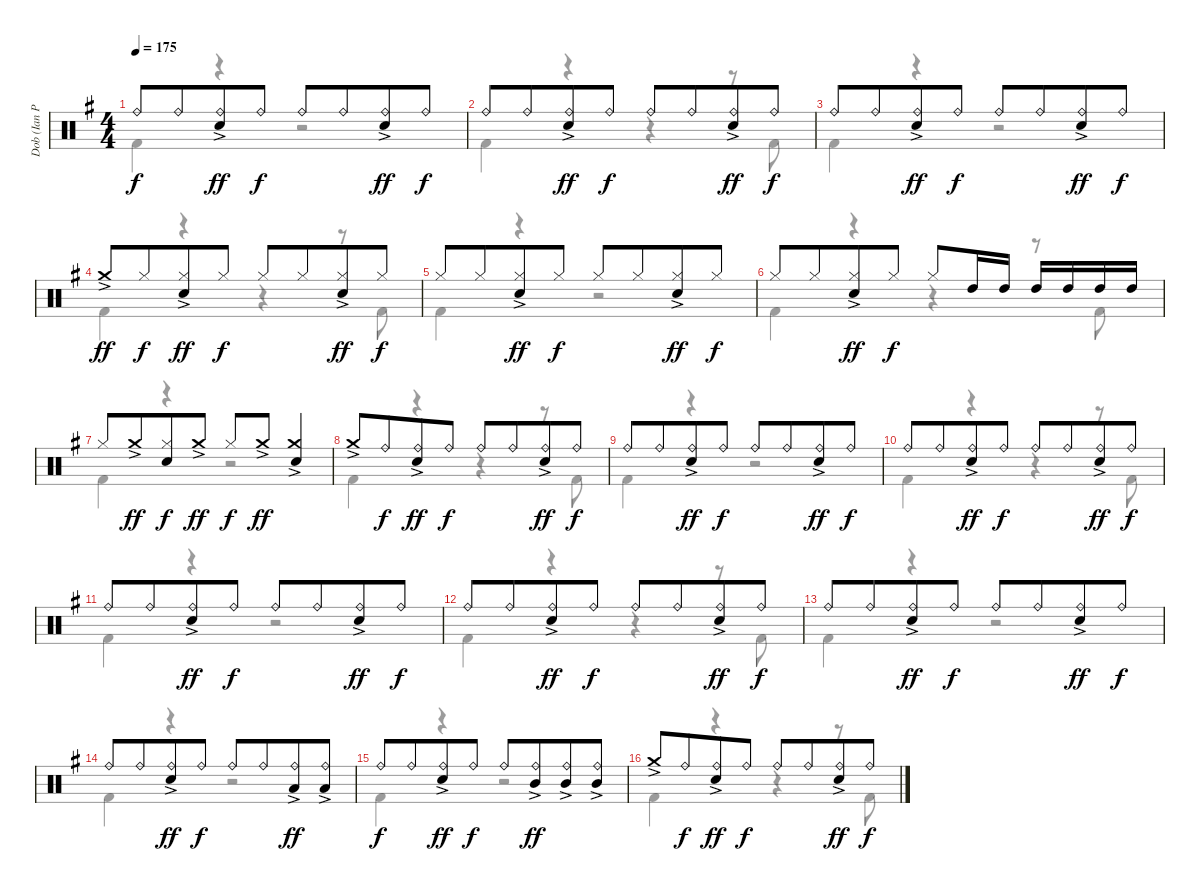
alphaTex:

\track ("Dob (Ian Paice)" "Dob (Ian P") {instrument percussion}
\staff {score}
\articulation defaults
\voice
\ts (4 4)
\tempo 175
\clef neutral
\ks g "Ride (bell)".8{dy f} "Ride (bell)".8{beam merge}
("Ride (bell)" "Electric Snare (hit)"{ac}).8{dy ff} "Ride (bell)".8{dy f} "Ride (bell)".8 "Ride (bell)".8{beam merge} ("Ride (bell)" "Electric Snare (hit)"{ac}).8{dy ff} "Ride (bell)".8{dy f} |
"Ride (bell)".8 "Ride (bell)".8{beam merge} ("Ride (bell)" "Electric Snare (hit)"{ac}).8{dy ff} "Ride (bell)".8{dy f} "Ride (bell)".8 "Ride (bell)".8{beam merge} ("Ride (bell)" "Electric Snare (hit)"{ac}).8{dy ff} "Ride (bell)".8{dy f} |
"Ride (bell)".8 "Ride (bell)".8{beam merge} ("Ride (bell)" "Electric Snare (hit)"{ac}).8{dy ff} "Ride (bell)".8{dy f} "Ride (bell)".8 "Ride (bell)".8{beam merge} ("Ride (bell)" "Electric Snare (hit)"{ac}).8{dy ff} "Ride (bell)".8{dy f} |
"Crash medium (hit)"{ac}.8{dy ff} "Hi-Hat (closed)".8{dy f beam merge} ("Hi-Hat (closed)" "Electric Snare (hit)"{ac}).8{dy ff} "Hi-Hat (closed)".8{dy f} "Hi-Hat (closed)".8 "Hi-Hat (closed)".8{beam merge} ("Hi-Hat (closed)" "Electric Snare (hit)"{ac}).8{dy ff} "Hi-Hat (closed)".8{dy f} |
"Hi-Hat (closed)".8 "Hi-Hat (closed)".8{beam merge} ("Hi-Hat (closed)" "Electric Snare (hit)"{ac}).8{dy ff} "Hi-Hat (closed)".8{dy f} "Hi-Hat (closed)".8 "Hi-Hat (closed)".8{beam merge} ("Hi-Hat (closed)" "Electric Snare (hit)"{ac}).8{dy ff} "Hi-Hat (closed)".8{dy f} |
"Hi-Hat (closed)".8 "Hi-Hat (closed)".8{beam merge} ("Hi-Hat (closed)" "Electric Snare (hit)"{ac}).8{dy ff} "Hi-Hat (closed)".8{dy f} "Hi-Hat (closed)".8 "High Tom (hit)".16 "High Tom (hit)".16 "High Tom (hit)".16 "High Tom (hit)".16 "High Tom (hit)".16 "High Tom (hit)".16 |
"Hi-Hat (closed)".8 "Crash medium (hit)"{ac}.8{dy ff beam merge} ("Hi-Hat (closed)" "Electric Snare (hit)").8{dy f} "Crash medium (hit)"{ac}.8{dy ff} "Hi-Hat (closed)".8{dy f} "Crash medium (hit)"{ac}.8{dy ff} ("Crash medium (hit)"{ac} "Electric Snare (hit)").4 |
"Crash medium (hit)"{ac}.8 "Ride (bell)".8{dy f beam merge} ("Ride (bell)" "Electric Snare (hit)"{ac}).8{dy ff} "Ride (bell)".8{dy f} "Ride (bell)".8 "Ride (bell)".8{beam merge} ("Ride (bell)" "Electric Snare (hit)"{ac}).8{dy ff} "Ride (bell)".8{dy f} |
"Ride (bell)".8 "Ride (bell)".8{beam merge} ("Ride (bell)" "Electric Snare (hit)"{ac}).8{dy ff} "Ride (bell)".8{dy f} "Ride (bell)".8 "Ride (bell)".8{beam merge} ("Ride (bell)" "Electric Snare (hit)"{ac}).8{dy ff} "Ride (bell)".8{dy f} |
"Ride (bell)".8 "Ride (bell)".8{beam merge} ("Ride (bell)" "Electric Snare (hit)"{ac}).8{dy ff} "Ride (bell)".8{dy f} "Ride (bell)".8 "Ride (bell)".8{beam merge} ("Ride (bell)" "Electric Snare (hit)"{ac}).8{dy ff} "Ride (bell)".8{dy f} |
"Ride (bell)".8 "Ride (bell)".8{beam merge} ("Ride (bell)" "Electric Snare (hit)"{ac}).8{dy ff} "Ride (bell)".8{dy f} "Ride (bell)".8 "Ride (bell)".8{beam merge} ("Ride (bell)" "Electric Snare (hit)"{ac}).8{dy ff} "Ride (bell)".8{dy f} |
"Ride (bell)".8 "Ride (bell)".8{beam merge} ("Ride (bell)" "Electric Snare (hit)"{ac}).8{dy ff} "Ride (bell)".8{dy f} "Ride (bell)".8 "Ride (bell)".8{beam merge} ("Ride (bell)" "Electric Snare (hit)"{ac}).8{dy ff} "Ride (bell)".8{dy f} |
"Ride (bell)".8 "Ride (bell)".8{beam merge} ("Ride (bell)" "Electric Snare (hit)"{ac}).8{dy ff} "Ride (bell)".8{dy f} "Ride (bell)".8 "Ride (bell)".8{beam merge} ("Ride (bell)" "Electric Snare (hit)"{ac}).8{dy ff} "Ride (bell)".8{dy f} |
"Ride (bell)".8 "Ride (bell)".8{beam merge} ("Ride (bell)" "Electric Snare (hit)"{ac}).8{dy ff} "Ride (bell)".8{dy f} "Ride (bell)".8 "Ride (bell)".8{beam merge} ("Ride (bell)" "Low Tom (hit)"{ac}).8{dy ff} ("Ride (bell)" "Low Tom (hit)"{ac}).8 |
"Ride (bell)".8{dy f} "Ride (bell)".8{beam merge} ("Ride (bell)" "Electric Snare (hit)"{ac}).8{dy ff} "Ride (bell)".8{dy f} "Ride (bell)".8 ("Ride (bell)" "Mid Tom (hit)"{ac}).8{dy ff beam merge} ("Ride (bell)" "Mid Tom (hit)"{ac}).8 ("Ride (bell)" "Mid Tom (hit)"{ac}).8 |
"Crash medium (hit)"{ac}.8 "Ride (bell)".8{dy f beam merge} ("Ride (bell)" "Electric Snare (hit)"{ac}).8{dy ff} "Ride (bell)".8{dy f} "Ride (bell)".8 "Ride (bell)".8{beam merge} ("Ride (bell)" "Electric Snare (hit)"{ac}).8{dy ff} "Ride (bell)".8{dy f}
\voice
\clef neutral
\ottava regular
\simile none
\ks g "Kick (hit) 2".4{dy f}
r.4 r.2 |
"Kick (hit) 2".4 r.4 r.4 r.8 "Kick (hit) 2".8 |
"Kick (hit) 2".4 r.4 r.2 |
"Kick (hit) 2".4 r.4 r.4 r.8 "Kick (hit) 2".8 |
"Kick (hit) 2".4 r.4 r.2 |
"Kick (hit) 2".4 r.4 r.4 r.8 "Kick (hit) 2".8 |
"Kick (hit) 2".4 r.4 r.2 |
"Kick (hit) 2".4 r.4 r.4 r.8 "Kick (hit) 2".8 |
"Kick (hit) 2".4 r.4 r.2 |
"Kick (hit) 2".4 r.4 r.4 r.8 "Kick (hit) 2".8 |
"Kick (hit) 2".4 r.4 r.2 |
"Kick (hit) 2".4 r.4 r.4 r.8 "Kick (hit) 2".8 |
"Kick (hit) 2".4 r.4 r.2 |
"Kick (hit) 2".4 r.4 r.2 |
"Kick (hit) 2".4 r.4 r.2 |
"Kick (hit) 2".4 r.4 r.4 r.8 "Kick (hit) 2".8
